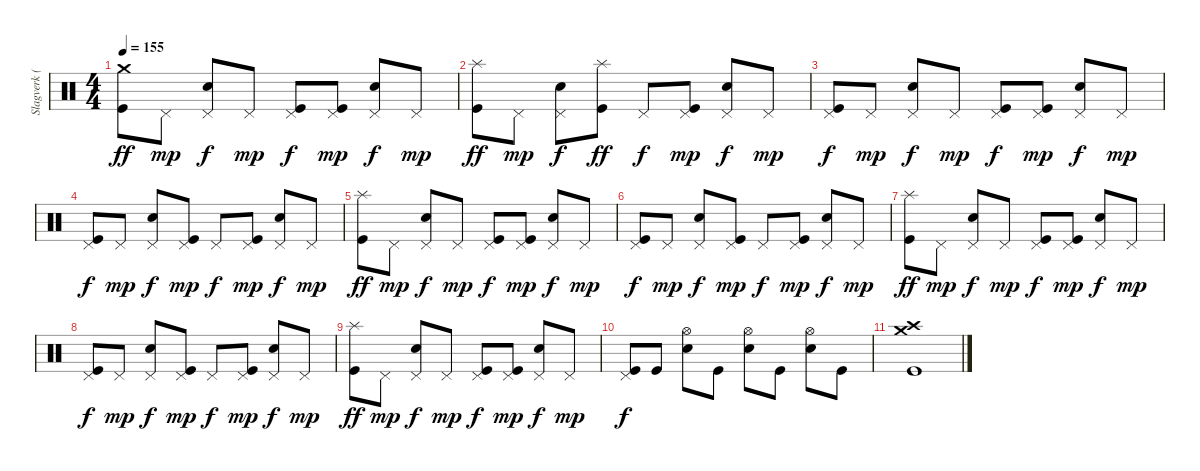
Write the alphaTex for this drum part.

\track ("Slagverk (Jan)" "Slagverk (") {instrument percussion}
\staff {score}
\articulation defaults
\ts (4 4)
\tempo 155
\clef neutral
\ks c
("Kick (hit)" "Crash medium (hit)").8{dy ff} "Pedal Hi-Hat (hit)".8{dy mp} ("Snare (hit) 2" "Pedal Hi-Hat (hit)").8{dy f} "Pedal Hi-Hat (hit)".8{dy mp} ("Kick (hit)" "Pedal Hi-Hat (hit)").8{dy f} ("Kick (hit)" "Pedal Hi-Hat (hit)").8{dy mp} ("Snare (hit) 2" "Pedal Hi-Hat (hit)").8{dy f} "Pedal Hi-Hat (hit)".8{dy mp} |
("Kick (hit)" "Splash (hit)").8{dy ff} "Pedal Hi-Hat (hit)".8{dy mp} ("Snare (hit) 2" "Pedal Hi-Hat (hit)").8{dy f} ("Kick (hit)" "Splash (hit)").8{dy ff} "Pedal Hi-Hat (hit)".8{dy f} ("Kick (hit)" "Pedal Hi-Hat (hit)").8{dy mp} ("Snare (hit) 2" "Pedal Hi-Hat (hit)").8{dy f} "Pedal Hi-Hat (hit)".8{dy mp} |
("Kick (hit)" "Pedal Hi-Hat (hit)").8{dy f} "Pedal Hi-Hat (hit)".8{dy mp} ("Snare (hit) 2" "Pedal Hi-Hat (hit)").8{dy f} "Pedal Hi-Hat (hit)".8{dy mp} ("Kick (hit)" "Pedal Hi-Hat (hit)").8{dy f} ("Kick (hit)" "Pedal Hi-Hat (hit)").8{dy mp} ("Snare (hit) 2" "Pedal Hi-Hat (hit)").8{dy f} "Pedal Hi-Hat (hit)".8{dy mp} |
("Kick (hit)" "Pedal Hi-Hat (hit)").8{dy f} "Pedal Hi-Hat (hit)".8{dy mp} ("Snare (hit) 2" "Pedal Hi-Hat (hit)").8{dy f} ("Kick (hit)" "Pedal Hi-Hat (hit)").8{dy mp} "Pedal Hi-Hat (hit)".8{dy f} ("Kick (hit)" "Pedal Hi-Hat (hit)").8{dy mp} ("Snare (hit) 2" "Pedal Hi-Hat (hit)").8{dy f} "Pedal Hi-Hat (hit)".8{dy mp} |
("Kick (hit)" "Splash (hit)").8{dy ff} "Pedal Hi-Hat (hit)".8{dy mp} ("Snare (hit) 2" "Pedal Hi-Hat (hit)").8{dy f} "Pedal Hi-Hat (hit)".8{dy mp} ("Kick (hit)" "Pedal Hi-Hat (hit)").8{dy f} ("Kick (hit)" "Pedal Hi-Hat (hit)").8{dy mp} ("Snare (hit) 2" "Pedal Hi-Hat (hit)").8{dy f} "Pedal Hi-Hat (hit)".8{dy mp} |
("Kick (hit)" "Pedal Hi-Hat (hit)").8{dy f} "Pedal Hi-Hat (hit)".8{dy mp} ("Snare (hit) 2" "Pedal Hi-Hat (hit)").8{dy f} ("Kick (hit)" "Pedal Hi-Hat (hit)").8{dy mp} "Pedal Hi-Hat (hit)".8{dy f} ("Kick (hit)" "Pedal Hi-Hat (hit)").8{dy mp} ("Snare (hit) 2" "Pedal Hi-Hat (hit)").8{dy f} "Pedal Hi-Hat (hit)".8{dy mp} |
("Kick (hit)" "Splash (hit)").8{dy ff} "Pedal Hi-Hat (hit)".8{dy mp} ("Snare (hit) 2" "Pedal Hi-Hat (hit)").8{dy f} "Pedal Hi-Hat (hit)".8{dy mp} ("Kick (hit)" "Pedal Hi-Hat (hit)").8{dy f} ("Kick (hit)" "Pedal Hi-Hat (hit)").8{dy mp} ("Snare (hit) 2" "Pedal Hi-Hat (hit)").8{dy f} "Pedal Hi-Hat (hit)".8{dy mp} |
("Kick (hit)" "Pedal Hi-Hat (hit)").8{dy f} "Pedal Hi-Hat (hit)".8{dy mp} ("Snare (hit) 2" "Pedal Hi-Hat (hit)").8{dy f} ("Kick (hit)" "Pedal Hi-Hat (hit)").8{dy mp} "Pedal Hi-Hat (hit)".8{dy f} ("Kick (hit)" "Pedal Hi-Hat (hit)").8{dy mp} ("Snare (hit) 2" "Pedal Hi-Hat (hit)").8{dy f} "Pedal Hi-Hat (hit)".8{dy mp} |
("Kick (hit)" "Splash (hit)").8{dy ff} "Pedal Hi-Hat (hit)".8{dy mp} ("Snare (hit) 2" "Pedal Hi-Hat (hit)").8{dy f} "Pedal Hi-Hat (hit)".8{dy mp} ("Kick (hit)" "Pedal Hi-Hat (hit)").8{dy f} ("Kick (hit)" "Pedal Hi-Hat (hit)").8{dy mp} ("Snare (hit) 2" "Pedal Hi-Hat (hit)").8{dy f} "Pedal Hi-Hat (hit)".8{dy mp} |
("Kick (hit)" "Pedal Hi-Hat (hit)").8{dy f} "Kick (hit)".8 ("Snare (hit) 2" "Hi-Hat (open)").8 "Kick (hit)".8 ("Snare (hit) 2" "Hi-Hat (open)").8 "Kick (hit)".8 ("Snare (hit) 2" "Hi-Hat (open)").8 "Kick (hit)".8 |
("Kick (hit)" "Crash medium (hit)" "Crash high (hit)").1
